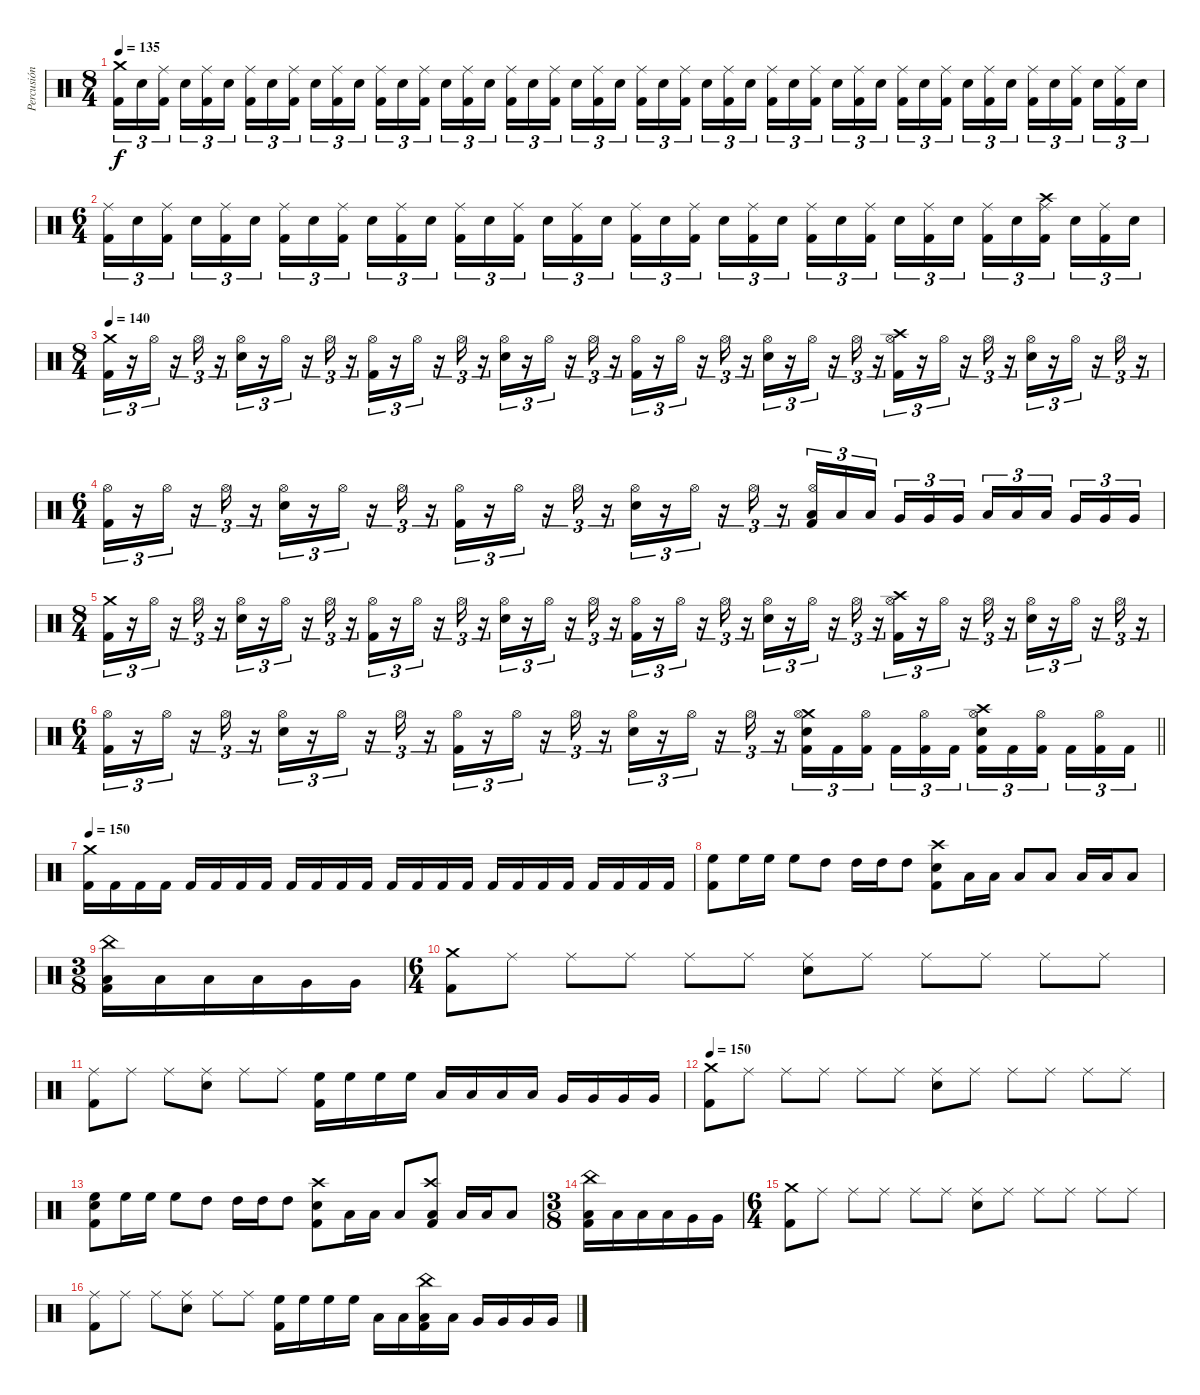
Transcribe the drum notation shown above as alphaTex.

\track ("Percusión" "Percusión") {instrument percussion}
\staff {score}
\articulation defaults
\ts (8 4)
\tempo 135
\clef neutral
\ks c
("Crash medium (hit)" "Kick (hit) 2").16{tu (3 2) dy f} "Electric Snare (hit)".16{tu (3 2)} ("Ride (middle)" "Kick (hit) 2").16{tu (3 2) beam splitsecondary} "Electric Snare (hit)".16{tu (3 2)} ("Ride (middle)" "Kick (hit) 2").16{tu (3 2)} "Electric Snare (hit)".16{tu (3 2)} ("Ride (middle)" "Kick (hit) 2").16{tu (3 2)} "Electric Snare (hit)".16{tu (3 2)} ("Ride (middle)" "Kick (hit) 2").16{tu (3 2) beam splitsecondary} "Electric Snare (hit)".16{tu (3 2)} ("Ride (middle)" "Kick (hit) 2").16{tu (3 2)} "Electric Snare (hit)".16{tu (3 2)} ("Ride (middle)" "Kick (hit) 2").16{tu (3 2)} "Electric Snare (hit)".16{tu (3 2)} ("Ride (middle)" "Kick (hit) 2").16{tu (3 2) beam splitsecondary} "Electric Snare (hit)".16{tu (3 2)} ("Ride (middle)" "Kick (hit) 2").16{tu (3 2)} "Electric Snare (hit)".16{tu (3 2)} ("Ride (middle)" "Kick (hit) 2").16{tu (3 2)} "Electric Snare (hit)".16{tu (3 2)} ("Ride (middle)" "Kick (hit) 2").16{tu (3 2) beam splitsecondary} "Electric Snare (hit)".16{tu (3 2)} ("Ride (middle)" "Kick (hit) 2").16{tu (3 2)} "Electric Snare (hit)".16{tu (3 2)} ("Ride (middle)" "Kick (hit) 2").16{tu (3 2)} "Electric Snare (hit)".16{tu (3 2)} ("Ride (middle)" "Kick (hit) 2").16{tu (3 2) beam splitsecondary} "Electric Snare (hit)".16{tu (3 2)} ("Ride (middle)" "Kick (hit) 2").16{tu (3 2)} "Electric Snare (hit)".16{tu (3 2)} ("Ride (middle)" "Kick (hit) 2").16{tu (3 2)} "Electric Snare (hit)".16{tu (3 2)} ("Ride (middle)" "Kick (hit) 2").16{tu (3 2) beam splitsecondary} "Electric Snare (hit)".16{tu (3 2)} ("Ride (middle)" "Kick (hit) 2").16{tu (3 2)} "Electric Snare (hit)".16{tu (3 2)} ("Ride (middle)" "Kick (hit) 2").16{tu (3 2)} "Electric Snare (hit)".16{tu (3 2)} ("Ride (middle)" "Kick (hit) 2").16{tu (3 2) beam splitsecondary} "Electric Snare (hit)".16{tu (3 2)} ("Ride (middle)" "Kick (hit) 2").16{tu (3 2)} "Electric Snare (hit)".16{tu (3 2)} ("Ride (middle)" "Kick (hit) 2").16{tu (3 2)} "Electric Snare (hit)".16{tu (3 2)} ("Ride (middle)" "Kick (hit) 2").16{tu (3 2) beam splitsecondary} "Electric Snare (hit)".16{tu (3 2)} ("Ride (middle)" "Kick (hit) 2").16{tu (3 2)} "Electric Snare (hit)".16{tu (3 2)} |
\ts (6 4)
("Ride (middle)" "Kick (hit) 2").16{tu (3 2)} "Electric Snare (hit)".16{tu (3 2)} ("Ride (middle)" "Kick (hit) 2").16{tu (3 2) beam splitsecondary} "Electric Snare (hit)".16{tu (3 2)} ("Ride (middle)" "Kick (hit) 2").16{tu (3 2)} "Electric Snare (hit)".16{tu (3 2) beam splitsecondary} ("Ride (middle)" "Kick (hit) 2").16{tu (3 2)} "Electric Snare (hit)".16{tu (3 2)} ("Ride (middle)" "Kick (hit) 2").16{tu (3 2) beam splitsecondary} "Electric Snare (hit)".16{tu (3 2)} ("Ride (middle)" "Kick (hit) 2").16{tu (3 2)} "Electric Snare (hit)".16{tu (3 2) beam splitsecondary} ("Ride (middle)" "Kick (hit) 2").16{tu (3 2)} "Electric Snare (hit)".16{tu (3 2)} ("Ride (middle)" "Kick (hit) 2").16{tu (3 2) beam splitsecondary} "Electric Snare (hit)".16{tu (3 2)} ("Ride (middle)" "Kick (hit) 2").16{tu (3 2)} "Electric Snare (hit)".16{tu (3 2)} ("Ride (middle)" "Kick (hit) 2").16{tu (3 2)} "Electric Snare (hit)".16{tu (3 2)} ("Ride (middle)" "Kick (hit) 2").16{tu (3 2) beam splitsecondary} "Electric Snare (hit)".16{tu (3 2)} ("Ride (middle)" "Kick (hit) 2").16{tu (3 2)} "Electric Snare (hit)".16{tu (3 2) beam splitsecondary} ("Ride (middle)" "Kick (hit) 2").16{tu (3 2)} "Electric Snare (hit)".16{tu (3 2)} ("Ride (middle)" "Kick (hit) 2").16{tu (3 2) beam splitsecondary} "Electric Snare (hit)".16{tu (3 2)} ("Ride (middle)" "Kick (hit) 2").16{tu (3 2)} "Electric Snare (hit)".16{tu (3 2) beam splitsecondary} ("Ride (middle)" "Kick (hit) 2").16{tu (3 2)} "Electric Snare (hit)".16{tu (3 2)} ("Crash high (hit)" "Ride (middle)" "Kick (hit) 2").16{tu (3 2) beam splitsecondary} "Electric Snare (hit)".16{tu (3 2)} ("Ride (middle)" "Kick (hit) 2").16{tu (3 2)} "Electric Snare (hit)".16{tu (3 2)} |
\ts (8 4)
\tempo 140
("Crash medium (hit)" "Kick (hit) 2").16{tu (3 2)} r.16{tu (3 2)} "Hi-Hat (open)".16{tu (3 2)} r.16{tu (3 2)} "Hi-Hat (open)".16{tu (3 2)} r.16{tu (3 2)} ("Hi-Hat (open)" "Electric Snare (hit)").16{tu (3 2)} r.16{tu (3 2)} "Hi-Hat (open)".16{tu (3 2)} r.16{tu (3 2)} "Hi-Hat (open)".16{tu (3 2)} r.16{tu (3 2)} ("Hi-Hat (open)" "Kick (hit) 2").16{tu (3 2)} r.16{tu (3 2)} "Hi-Hat (open)".16{tu (3 2)} r.16{tu (3 2)} "Hi-Hat (open)".16{tu (3 2)} r.16{tu (3 2)} ("Hi-Hat (open)" "Electric Snare (hit)").16{tu (3 2)} r.16{tu (3 2)} "Hi-Hat (open)".16{tu (3 2)} r.16{tu (3 2)} "Hi-Hat (open)".16{tu (3 2)} r.16{tu (3 2)} ("Hi-Hat (open)" "Kick (hit) 2").16{tu (3 2)} r.16{tu (3 2)} "Hi-Hat (open)".16{tu (3 2)} r.16{tu (3 2)} "Hi-Hat (open)".16{tu (3 2)} r.16{tu (3 2)} ("Hi-Hat (open)" "Electric Snare (hit)").16{tu (3 2)} r.16{tu (3 2)} "Hi-Hat (open)".16{tu (3 2)} r.16{tu (3 2)} "Hi-Hat (open)".16{tu (3 2)} r.16{tu (3 2)} ("Crash high (hit)" "Hi-Hat (open)" "Kick (hit) 2").16{tu (3 2)} r.16{tu (3 2)} "Hi-Hat (open)".16{tu (3 2)} r.16{tu (3 2)} "Hi-Hat (open)".16{tu (3 2)} r.16{tu (3 2)} ("Hi-Hat (open)" "Electric Snare (hit)").16{tu (3 2)} r.16{tu (3 2)} "Hi-Hat (open)".16{tu (3 2)} r.16{tu (3 2)} "Hi-Hat (open)".16{tu (3 2)} r.16{tu (3 2)} |
\ts (6 4)
("Hi-Hat (open)" "Kick (hit) 2").16{tu (3 2)} r.16{tu (3 2)} "Hi-Hat (open)".16{tu (3 2)} r.16{tu (3 2)} "Hi-Hat (open)".16{tu (3 2)} r.16{tu (3 2)} ("Hi-Hat (open)" "Electric Snare (hit)").16{tu (3 2)} r.16{tu (3 2)} "Hi-Hat (open)".16{tu (3 2)} r.16{tu (3 2)} "Hi-Hat (open)".16{tu (3 2)} r.16{tu (3 2)} ("Hi-Hat (open)" "Kick (hit) 2").16{tu (3 2)} r.16{tu (3 2)} "Hi-Hat (open)".16{tu (3 2)} r.16{tu (3 2)} "Hi-Hat (open)".16{tu (3 2)} r.16{tu (3 2)} ("Hi-Hat (open)" "Electric Snare (hit)").16{tu (3 2)} r.16{tu (3 2)} "Hi-Hat (open)".16{tu (3 2)} r.16{tu (3 2)} "Hi-Hat (open)".16{tu (3 2)} r.16{tu (3 2)} ("Low Tom (hit)" "Hi-Hat (open)" "Kick (hit) 2").16{tu (3 2)} "Low Tom (hit)".16{tu (3 2)} "Low Tom (hit)".16{tu (3 2) beam splitsecondary} "Very Low Tom (hit)".16{tu (3 2)} "Very Low Tom (hit)".16{tu (3 2)} "Very Low Tom (hit)".16{tu (3 2) beam splitsecondary} "Low Floor Tom (hit)".16{tu (3 2)} "Low Floor Tom (hit)".16{tu (3 2)} "Low Floor Tom (hit)".16{tu (3 2) beam splitsecondary} "Very Low Tom (hit)".16{tu (3 2)} "Very Low Tom (hit)".16{tu (3 2)} "Very Low Tom (hit)".16{tu (3 2)} |
\ts (8 4)
("Crash medium (hit)" "Kick (hit) 2").16{tu (3 2)} r.16{tu (3 2)} "Hi-Hat (open)".16{tu (3 2)} r.16{tu (3 2)} "Hi-Hat (open)".16{tu (3 2)} r.16{tu (3 2)} ("Hi-Hat (open)" "Electric Snare (hit)").16{tu (3 2)} r.16{tu (3 2)} "Hi-Hat (open)".16{tu (3 2)} r.16{tu (3 2)} "Hi-Hat (open)".16{tu (3 2)} r.16{tu (3 2)} ("Hi-Hat (open)" "Kick (hit) 2").16{tu (3 2)} r.16{tu (3 2)} "Hi-Hat (open)".16{tu (3 2)} r.16{tu (3 2)} "Hi-Hat (open)".16{tu (3 2)} r.16{tu (3 2)} ("Hi-Hat (open)" "Electric Snare (hit)").16{tu (3 2)} r.16{tu (3 2)} "Hi-Hat (open)".16{tu (3 2)} r.16{tu (3 2)} "Hi-Hat (open)".16{tu (3 2)} r.16{tu (3 2)} ("Hi-Hat (open)" "Kick (hit) 2").16{tu (3 2)} r.16{tu (3 2)} "Hi-Hat (open)".16{tu (3 2)} r.16{tu (3 2)} "Hi-Hat (open)".16{tu (3 2)} r.16{tu (3 2)} ("Hi-Hat (open)" "Electric Snare (hit)").16{tu (3 2)} r.16{tu (3 2)} "Hi-Hat (open)".16{tu (3 2)} r.16{tu (3 2)} "Hi-Hat (open)".16{tu (3 2)} r.16{tu (3 2)} ("Crash high (hit)" "Hi-Hat (open)" "Kick (hit) 2").16{tu (3 2)} r.16{tu (3 2)} "Hi-Hat (open)".16{tu (3 2)} r.16{tu (3 2)} "Hi-Hat (open)".16{tu (3 2)} r.16{tu (3 2)} ("Hi-Hat (open)" "Electric Snare (hit)").16{tu (3 2)} r.16{tu (3 2)} "Hi-Hat (open)".16{tu (3 2)} r.16{tu (3 2)} "Hi-Hat (open)".16{tu (3 2)} r.16{tu (3 2)} |
\ts (6 4)
\barLineRight lightlight
("Hi-Hat (open)" "Kick (hit) 2").16{tu (3 2)} r.16{tu (3 2)} "Hi-Hat (open)".16{tu (3 2)} r.16{tu (3 2)} "Hi-Hat (open)".16{tu (3 2)} r.16{tu (3 2)} ("Hi-Hat (open)" "Electric Snare (hit)").16{tu (3 2)} r.16{tu (3 2)} "Hi-Hat (open)".16{tu (3 2)} r.16{tu (3 2)} "Hi-Hat (open)".16{tu (3 2)} r.16{tu (3 2)} ("Hi-Hat (open)" "Kick (hit) 2").16{tu (3 2)} r.16{tu (3 2)} "Hi-Hat (open)".16{tu (3 2)} r.16{tu (3 2)} "Hi-Hat (open)".16{tu (3 2)} r.16{tu (3 2)} ("Hi-Hat (open)" "Electric Snare (hit)").16{tu (3 2)} r.16{tu (3 2)} "Hi-Hat (open)".16{tu (3 2)} r.16{tu (3 2)} "Hi-Hat (open)".16{tu (3 2)} r.16{tu (3 2)} ("Crash medium (hit)" "Hi-Hat (open)" "Electric Snare (hit)" "Kick (hit) 2").16{tu (3 2)} "Kick (hit) 2".16{tu (3 2)} ("Hi-Hat (open)" "Kick (hit) 2").16{tu (3 2) beam splitsecondary} "Kick (hit) 2".16{tu (3 2)} ("Hi-Hat (open)" "Kick (hit) 2").16{tu (3 2)} "Kick (hit) 2".16{tu (3 2) beam splitsecondary} ("Crash high (hit)" "Hi-Hat (open)" "Electric Snare (hit)" "Kick (hit) 2").16{tu (3 2)} "Kick (hit) 2".16{tu (3 2)} ("Hi-Hat (open)" "Kick (hit) 2").16{tu (3 2) beam splitsecondary} "Kick (hit) 2".16{tu (3 2)} ("Hi-Hat (open)" "Kick (hit) 2").16{tu (3 2)} "Kick (hit) 2".16{tu (3 2)} |
\tempo 150
("Crash medium (hit)" "Kick (hit) 2").16 "Kick (hit) 2".16 "Kick (hit) 2".16 "Kick (hit) 2".16 "Kick (hit) 2".16 "Kick (hit) 2".16 "Kick (hit) 2".16 "Kick (hit) 2".16 "Kick (hit) 2".16 "Kick (hit) 2".16 "Kick (hit) 2".16 "Kick (hit) 2".16 "Kick (hit) 2".16 "Kick (hit) 2".16 "Kick (hit) 2".16 "Kick (hit) 2".16 "Kick (hit) 2".16 "Kick (hit) 2".16 "Kick (hit) 2".16 "Kick (hit) 2".16 "Kick (hit) 2".16 "Kick (hit) 2".16 "Kick (hit) 2".16 "Kick (hit) 2".16 |
("High Floor Tom (hit)" "Kick (hit) 2").8 "High Floor Tom (hit)".16 "High Floor Tom (hit)".16 "High Floor Tom (hit)".8 "High Tom (hit)".8 "High Tom (hit)".16 "High Tom (hit)".16 "High Tom (hit)".8 ("Crash high (hit)" "Electric Snare (hit)" "Kick (hit) 2").8 "Low Tom (hit)".16 "Low Tom (hit)".16 "Low Tom (hit)".8 "Low Floor Tom (hit)".8 "Low Floor Tom (hit)".16 "Low Floor Tom (hit)".16 "Low Floor Tom (hit)".8 |
\ts (3 8)
("China (hit)" "Low Tom (hit)" "Kick (hit) 2").16 "Low Tom (hit)".16 "Low Tom (hit)".16 "Low Tom (hit)".16 "Very Low Tom (hit)".16 "Very Low Tom (hit)".16 |
\ts (6 4)
("Crash medium (hit)" "Kick (hit) 2").8 "Ride (middle)".8 "Ride (middle)".8 "Ride (middle)".8 "Ride (middle)".8 "Ride (middle)".8 ("Ride (middle)" "Electric Snare (hit)").8 "Ride (middle)".8 "Ride (middle)".8 "Ride (middle)".8 "Ride (middle)".8 "Ride (middle)".8 |
("Ride (middle)" "Kick (hit) 2").8 "Ride (middle)".8 "Ride (middle)".8 ("Ride (middle)" "Electric Snare (hit)").8 "Ride (middle)".8 "Ride (middle)".8 ("High Floor Tom (hit)" "Kick (hit) 2").16 "High Floor Tom (hit)".16 "High Floor Tom (hit)".16 "High Floor Tom (hit)".16 "Low Tom (hit)".16 "Low Tom (hit)".16 "Low Tom (hit)".16 "Low Tom (hit)".16 "Very Low Tom (hit)".16 "Very Low Tom (hit)".16 "Very Low Tom (hit)".16 "Very Low Tom (hit)".16 |
\tempo 150
("Crash medium (hit)" "Kick (hit) 2").8 "Ride (middle)".8 "Ride (middle)".8 "Ride (middle)".8 "Ride (middle)".8 "Ride (middle)".8 ("Ride (middle)" "Electric Snare (hit)").8 "Ride (middle)".8 "Ride (middle)".8 "Ride (middle)".8 "Ride (middle)".8 "Ride (middle)".8 |
("High Floor Tom (hit)" "Electric Snare (hit)" "Kick (hit) 2").8 "High Floor Tom (hit)".16 "High Floor Tom (hit)".16 "High Floor Tom (hit)".8 "High Tom (hit)".8 "High Tom (hit)".16 "High Tom (hit)".16 "High Tom (hit)".8 ("Crash high (hit)" "Electric Snare (hit)" "Kick (hit) 2").8 "Low Tom (hit)".16 "Low Tom (hit)".16 "Low Tom (hit)".8 ("Crash high (hit)" "Low Floor Tom (hit)" "Kick (hit) 2").8 "Low Floor Tom (hit)".16 "Low Floor Tom (hit)".16 "Low Floor Tom (hit)".8 |
\ts (3 8)
("China (hit)" "Low Tom (hit)" "Kick (hit) 2").16 "Low Tom (hit)".16 "Low Tom (hit)".16 "Low Tom (hit)".16 "Very Low Tom (hit)".16 "Very Low Tom (hit)".16 |
\ts (6 4)
("Crash medium (hit)" "Kick (hit) 2").8 "Ride (middle)".8 "Ride (middle)".8 "Ride (middle)".8 "Ride (middle)".8 "Ride (middle)".8 ("Ride (middle)" "Electric Snare (hit)").8 "Ride (middle)".8 "Ride (middle)".8 "Ride (middle)".8 "Ride (middle)".8 "Ride (middle)".8 |
("Ride (middle)" "Kick (hit) 2").8 "Ride (middle)".8 "Ride (middle)".8 ("Ride (middle)" "Electric Snare (hit)").8 "Ride (middle)".8 "Ride (middle)".8 ("High Floor Tom (hit)" "Kick (hit) 2").16 "High Floor Tom (hit)".16 "High Floor Tom (hit)".16 "High Floor Tom (hit)".16 "Low Tom (hit)".16 "Low Tom (hit)".16 ("China (hit)" "Low Tom (hit)" "Kick (hit) 2").16 "Low Tom (hit)".16 "Very Low Tom (hit)".16 "Very Low Tom (hit)".16 "Very Low Tom (hit)".16 "Very Low Tom (hit)".16
